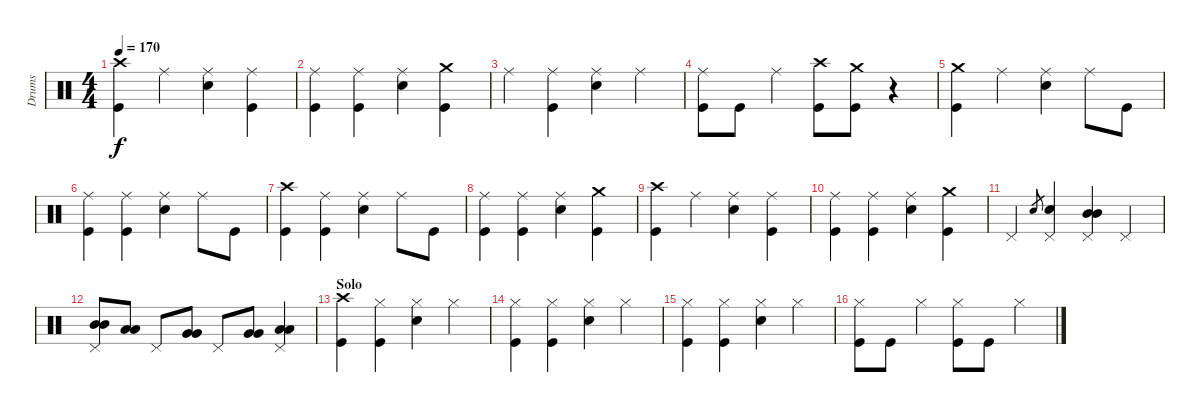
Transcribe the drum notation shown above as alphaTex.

\track ("Drums" "Drums") {instrument percussion}
\staff {score}
\articulation defaults
\ts (4 4)
\tempo 170
\clef neutral
\ks c
("Crash high (hit)" "Kick (hit)").4{dy f} "Ride (middle)".4 ("Ride (middle)" "Snare (hit) 2").4 ("Ride (middle)" "Kick (hit)").4 |
("Ride (middle)" "Kick (hit)").4 ("Ride (middle)" "Kick (hit)").4 ("Ride (middle)" "Snare (hit) 2").4 ("Crash medium (hit)" "Kick (hit)").4 |
"Ride (middle)".4 ("Ride (middle)" "Kick (hit)").4 ("Ride (middle)" "Snare (hit) 2").4 "Ride (middle)".4 |
("Ride (middle)" "Kick (hit)").8 "Kick (hit)".8 "Ride (middle)".4 ("Crash high (hit)" "Kick (hit)").8 ("Crash medium (hit)" "Kick (hit)").8 r.4 |
("Crash medium (hit)" "Kick (hit)").4 "Ride (middle)".4 ("Ride (middle)" "Snare (hit) 2").4 "Ride (middle)".8 "Kick (hit)".8 |
("Ride (middle)" "Kick (hit)").4 ("Ride (middle)" "Kick (hit)").4 ("Ride (middle)" "Snare (hit) 2").4 "Ride (middle)".8 "Kick (hit)".8 |
("Crash high (hit)" "Kick (hit)").4 ("Ride (middle)" "Kick (hit)").4 ("Ride (middle)" "Snare (hit) 2").4 "Ride (middle)".8 "Kick (hit)".8 |
("Ride (middle)" "Kick (hit)").4 ("Ride (middle)" "Kick (hit)").4 ("Ride (middle)" "Snare (hit) 2").4 ("Crash medium (hit)" "Kick (hit)").4 |
("Crash high (hit)" "Kick (hit)").4 "Ride (middle)".4 ("Ride (middle)" "Snare (hit) 2").4 ("Ride (middle)" "Kick (hit)").4 |
("Ride (middle)" "Kick (hit)").4 ("Ride (middle)" "Kick (hit)").4 ("Ride (middle)" "Snare (hit) 2").4 ("Crash medium (hit)" "Kick (hit)").4 |
"Pedal Hi-Hat (hit)".4 "Snare (hit) 2".8{gr} ("Pedal Hi-Hat (hit)" "Snare (hit) 2").4 ("Pedal Hi-Hat (hit)" "Mid Tom (hit)" "Mid Tom (hit)").4 "Pedal Hi-Hat (hit)".4 |
("Pedal Hi-Hat (hit)" "Mid Tom (hit)" "Mid Tom (hit)").8 ("Low Tom (hit)" "Low Tom (hit)").8 "Pedal Hi-Hat (hit)".8 ("Very Low Tom (hit)" "Very Low Tom (hit)").8 "Pedal Hi-Hat (hit)".8 ("Very Low Tom (hit)" "Very Low Tom (hit)").8 ("Pedal Hi-Hat (hit)" "Low Floor Tom (hit)" "Low Floor Tom (hit)").4 |
\section ("" "Solo")
("Crash high (hit)" "Kick (hit)").4 ("Hi-Hat (closed)" "Kick (hit)").4 ("Hi-Hat (closed)" "Snare (hit) 2").4 "Hi-Hat (closed)".4 |
("Hi-Hat (closed)" "Kick (hit)").4 ("Hi-Hat (closed)" "Kick (hit)").4 ("Hi-Hat (closed)" "Snare (hit) 2").4 "Hi-Hat (closed)".4 |
("Hi-Hat (closed)" "Kick (hit)").4 ("Hi-Hat (closed)" "Kick (hit)").4 ("Hi-Hat (closed)" "Snare (hit) 2").4 "Hi-Hat (closed)".4 |
("Hi-Hat (closed)" "Kick (hit)").8 "Kick (hit)".8 "Hi-Hat (closed)".4 ("Hi-Hat (closed)" "Kick (hit)").8 "Kick (hit)".8 "Hi-Hat (closed)".4
